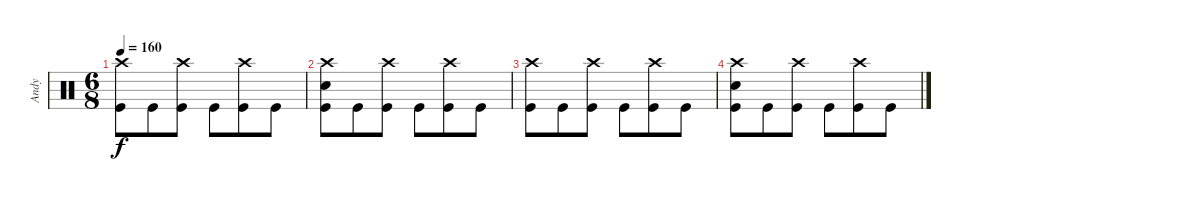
\track ("Andy" "Andy") {instrument percussion}
\staff {score}
\articulation defaults
\ts (6 8)
\tempo 160
\clef neutral
\ks c
("Kick (hit)" "Crash high (hit)").8{dy f} "Kick (hit)".8 ("Kick (hit)" "Crash high (hit)").8 "Kick (hit)".8 ("Kick (hit)" "Crash high (hit)").8 "Kick (hit)".8 |
("Kick (hit)" "Crash high (hit)" "Snare (hit) 2").8 "Kick (hit)".8 ("Kick (hit)" "Crash high (hit)").8 "Kick (hit)".8 ("Kick (hit)" "Crash high (hit)").8 "Kick (hit)".8 |
("Kick (hit)" "Crash high (hit)").8 "Kick (hit)".8 ("Kick (hit)" "Crash high (hit)").8 "Kick (hit)".8 ("Kick (hit)" "Crash high (hit)").8 "Kick (hit)".8 |
("Kick (hit)" "Crash high (hit)" "Snare (hit) 2").8 "Kick (hit)".8 ("Kick (hit)" "Crash high (hit)").8 "Kick (hit)".8 ("Kick (hit)" "Crash high (hit)").8 "Kick (hit)".8
